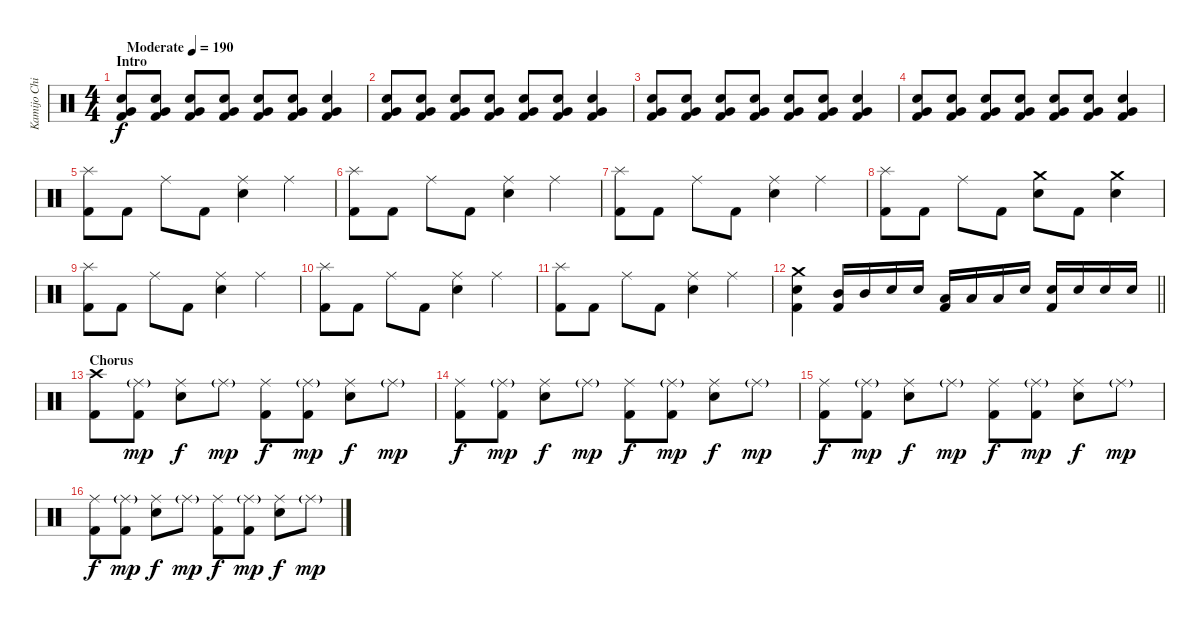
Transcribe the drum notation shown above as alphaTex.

\track ("Kamijo Chihiro" "Kamijo Chi") {instrument percussion}
\staff {score}
\articulation defaults
\ts (4 4)
\section ("" "Intro")
\tempo (190 "Moderate")
\clef neutral
\ks c
("Snare (hit) 2" "Very Low Tom (hit)" "Kick (hit) 2").8{dy f} ("Snare (hit) 2" "Very Low Tom (hit)" "Kick (hit) 2").8 ("Snare (hit) 2" "Very Low Tom (hit)" "Kick (hit) 2").8 ("Snare (hit) 2" "Very Low Tom (hit)" "Kick (hit) 2").8 ("Snare (hit) 2" "Very Low Tom (hit)" "Kick (hit) 2").8 ("Snare (hit) 2" "Very Low Tom (hit)" "Kick (hit) 2").8 ("Snare (hit) 2" "Very Low Tom (hit)" "Kick (hit) 2").4 |
("Snare (hit) 2" "Very Low Tom (hit)" "Kick (hit) 2").8 ("Snare (hit) 2" "Very Low Tom (hit)" "Kick (hit) 2").8 ("Snare (hit) 2" "Very Low Tom (hit)" "Kick (hit) 2").8 ("Snare (hit) 2" "Very Low Tom (hit)" "Kick (hit) 2").8 ("Snare (hit) 2" "Very Low Tom (hit)" "Kick (hit) 2").8 ("Snare (hit) 2" "Very Low Tom (hit)" "Kick (hit) 2").8 ("Snare (hit) 2" "Very Low Tom (hit)" "Kick (hit) 2").4 |
("Snare (hit) 2" "Very Low Tom (hit)" "Kick (hit) 2").8 ("Snare (hit) 2" "Very Low Tom (hit)" "Kick (hit) 2").8 ("Snare (hit) 2" "Very Low Tom (hit)" "Kick (hit) 2").8 ("Snare (hit) 2" "Very Low Tom (hit)" "Kick (hit) 2").8 ("Snare (hit) 2" "Very Low Tom (hit)" "Kick (hit) 2").8 ("Snare (hit) 2" "Very Low Tom (hit)" "Kick (hit) 2").8 ("Snare (hit) 2" "Very Low Tom (hit)" "Kick (hit) 2").4 |
("Snare (hit) 2" "Very Low Tom (hit)" "Kick (hit) 2").8 ("Snare (hit) 2" "Very Low Tom (hit)" "Kick (hit) 2").8 ("Snare (hit) 2" "Very Low Tom (hit)" "Kick (hit) 2").8 ("Snare (hit) 2" "Very Low Tom (hit)" "Kick (hit) 2").8 ("Snare (hit) 2" "Very Low Tom (hit)" "Kick (hit) 2").8 ("Snare (hit) 2" "Very Low Tom (hit)" "Kick (hit) 2").8 ("Snare (hit) 2" "Very Low Tom (hit)" "Kick (hit) 2").4 |
("Splash (hit)" "Kick (hit) 2").8 "Kick (hit) 2".8 "Ride (middle)".8 "Kick (hit) 2".8 ("Ride (middle)" "Snare (hit) 2").4 "Ride (middle)".4 |
("Splash (hit)" "Kick (hit) 2").8 "Kick (hit) 2".8 "Ride (middle)".8 "Kick (hit) 2".8 ("Ride (middle)" "Snare (hit) 2").4 "Ride (middle)".4 |
("Splash (hit)" "Kick (hit) 2").8 "Kick (hit) 2".8 "Ride (middle)".8 "Kick (hit) 2".8 ("Ride (middle)" "Snare (hit) 2").4 "Ride (middle)".4 |
("Splash (hit)" "Kick (hit) 2").8 "Kick (hit) 2".8 "Ride (middle)".8 "Kick (hit) 2".8 ("Crash medium (hit)" "Snare (hit) 2").8 "Kick (hit) 2".8 ("Crash medium (hit)" "Snare (hit) 2").4 |
("Splash (hit)" "Kick (hit) 2").8 "Kick (hit) 2".8 "Ride (middle)".8 "Kick (hit) 2".8 ("Ride (middle)" "Snare (hit) 2").4 "Ride (middle)".4 |
("Splash (hit)" "Kick (hit) 2").8 "Kick (hit) 2".8 "Ride (middle)".8 "Kick (hit) 2".8 ("Ride (middle)" "Snare (hit) 2").4 "Ride (middle)".4 |
("Splash (hit)" "Kick (hit) 2").8 "Kick (hit) 2".8 "Ride (middle)".8 "Kick (hit) 2".8 ("Ride (middle)" "Snare (hit) 2").4 "Ride (middle)".4 |
\barLineRight lightlight
("Crash medium (hit)" "Snare (hit) 2" "Kick (hit) 2").4 ("Mid Tom (hit)" "Kick (hit) 2").16 "Mid Tom (hit)".16 "Snare (hit) 2".16 "Snare (hit) 2".16 ("Low Tom (hit)" "Kick (hit) 2").16 "Low Tom (hit)".16 "Low Tom (hit)".16 "Snare (hit) 2".16 ("Snare (hit) 2" "Kick (hit) 2").16 "Snare (hit) 2".16 "Snare (hit) 2".16 "Snare (hit) 2".16 |
\section ("" "Chorus")
("Crash high (hit)" "Kick (hit) 2").8 ("Ride (middle)"{g} "Kick (hit) 2").8{dy mp} ("Ride (middle)" "Snare (hit) 2").8{dy f} "Ride (middle)"{g}.8{dy mp} ("Ride (middle)" "Kick (hit) 2").8{dy f} ("Ride (middle)"{g} "Kick (hit) 2").8{dy mp} ("Ride (middle)" "Snare (hit) 2").8{dy f} "Ride (middle)"{g}.8{dy mp} |
("Ride (middle)" "Kick (hit) 2").8{dy f} ("Ride (middle)"{g} "Kick (hit) 2").8{dy mp} ("Ride (middle)" "Snare (hit) 2").8{dy f} "Ride (middle)"{g}.8{dy mp} ("Ride (middle)" "Kick (hit) 2").8{dy f} ("Ride (middle)"{g} "Kick (hit) 2").8{dy mp} ("Ride (middle)" "Snare (hit) 2").8{dy f} "Ride (middle)"{g}.8{dy mp} |
("Ride (middle)" "Kick (hit) 2").8{dy f} ("Ride (middle)"{g} "Kick (hit) 2").8{dy mp} ("Ride (middle)" "Snare (hit) 2").8{dy f} "Ride (middle)"{g}.8{dy mp} ("Ride (middle)" "Kick (hit) 2").8{dy f} ("Ride (middle)"{g} "Kick (hit) 2").8{dy mp} ("Ride (middle)" "Snare (hit) 2").8{dy f} "Ride (middle)"{g}.8{dy mp} |
("Ride (middle)" "Kick (hit) 2").8{dy f} ("Ride (middle)"{g} "Kick (hit) 2").8{dy mp} ("Ride (middle)" "Snare (hit) 2").8{dy f} "Ride (middle)"{g}.8{dy mp} ("Ride (middle)" "Kick (hit) 2").8{dy f} ("Ride (middle)"{g} "Kick (hit) 2").8{dy mp} ("Ride (middle)" "Snare (hit) 2").8{dy f} "Ride (middle)"{g}.8{dy mp}
